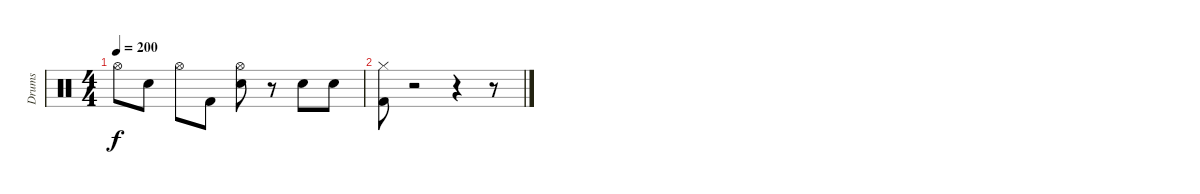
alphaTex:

\track ("Drums" "Drums") {instrument percussion}
\staff {score}
\articulation defaults
\ts (4 4)
\tempo 200
\clef neutral
\ks c "Hi-Hat (open)".8{dy f} "Electric Snare (hit)".8 "Hi-Hat (open)".8 "Kick (hit) 2".8
("Hi-Hat (open)" "Electric Snare (hit)").8 r.8 "Electric Snare (hit)".8 "Electric Snare (hit)".8 |
("Hi-Hat (closed)" "Kick (hit) 2").8 r.2 r.4 r.8
